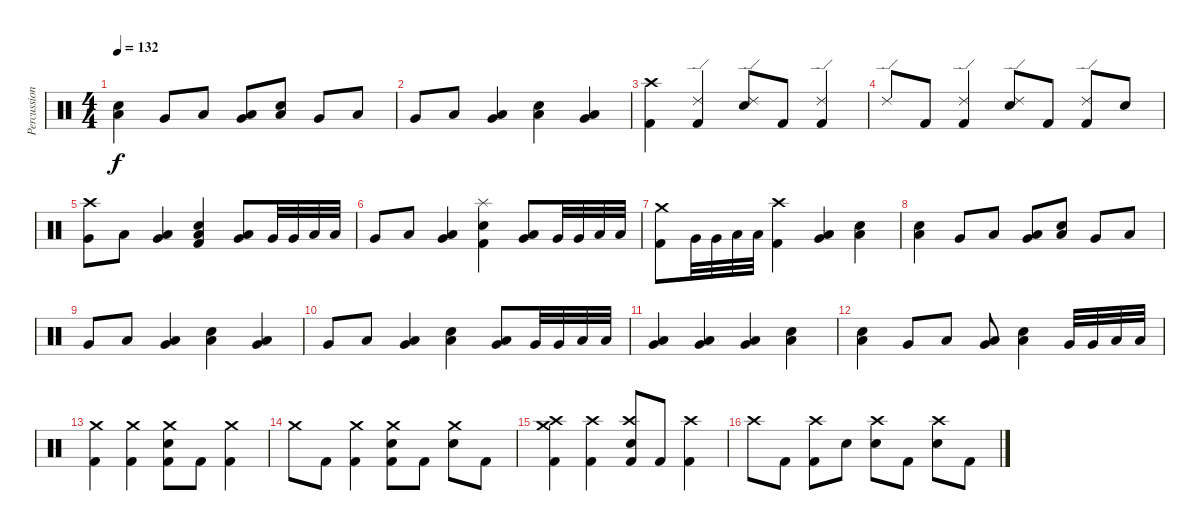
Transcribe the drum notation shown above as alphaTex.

\track ("Percussion" "Percussion") {instrument percussion}
\staff {score}
\articulation defaults
\ts (4 4)
\tempo 132
\clef neutral
\ks c
("Electric Snare (hit)" "Low Floor Tom (hit)").4{dy f} "Very Low Tom (hit)".8 "Low Floor Tom (hit)".8 ("Very Low Tom (hit)" "Low Floor Tom (hit)").8 ("Electric Snare (hit)" "Low Floor Tom (hit)").8 "Very Low Tom (hit)".8 "Low Floor Tom (hit)".8 |
"Very Low Tom (hit)".8 "Low Floor Tom (hit)".8 ("Very Low Tom (hit)" "Low Floor Tom (hit)").4 ("Electric Snare (hit)" "Low Floor Tom (hit)").4 ("Very Low Tom (hit)" "Low Floor Tom (hit)").4 |
("Crash high (hit)" "Kick (hit) 2").4 ("Ride (edge) 2" "Kick (hit) 2").4 ("Ride (edge) 2" "Electric Snare (hit)").8 "Kick (hit) 2".8 ("Ride (edge) 2" "Kick (hit) 2").4 |
"Ride (edge) 2".8 "Kick (hit) 2".8 ("Ride (edge) 2" "Kick (hit) 2").4 ("Ride (edge) 2" "Electric Snare (hit)").8 "Kick (hit) 2".8 ("Ride (edge) 2" "Kick (hit) 2").8 "Electric Snare (hit)".8 |
("Crash high (hit)" "Very Low Tom (hit)").8 "Low Floor Tom (hit)".8 ("Very Low Tom (hit)" "Low Floor Tom (hit)").4 ("Electric Snare (hit)" "Low Floor Tom (hit)" "Kick (hit) 2").4 ("Very Low Tom (hit)" "Low Floor Tom (hit)").8 "Very Low Tom (hit)".32 "Very Low Tom (hit)".32 "Low Floor Tom (hit)".32 "Low Floor Tom (hit)".32 |
"Very Low Tom (hit)".8 "Low Floor Tom (hit)".8 ("Very Low Tom (hit)" "Low Floor Tom (hit)").4 ("Splash (hit)" "Electric Snare (hit)" "Kick (hit) 2").4 ("Very Low Tom (hit)" "Low Floor Tom (hit)").8 "Very Low Tom (hit)".32 "Very Low Tom (hit)".32 "Low Floor Tom (hit)".32 "Low Floor Tom (hit)".32 |
("Crash medium (hit)" "Kick (hit) 2").8 "Very Low Tom (hit)".32 "Very Low Tom (hit)".32 "Low Floor Tom (hit)".32 "Low Floor Tom (hit)".32 ("Crash high (hit)" "Kick (hit) 2").4 ("Very Low Tom (hit)" "Low Floor Tom (hit)").4 ("Electric Snare (hit)" "Low Floor Tom (hit)").4 |
("Electric Snare (hit)" "Low Floor Tom (hit)").4 "Very Low Tom (hit)".8 "Low Floor Tom (hit)".8 ("Very Low Tom (hit)" "Low Floor Tom (hit)").8 ("Electric Snare (hit)" "Low Floor Tom (hit)").8 "Very Low Tom (hit)".8 "Low Floor Tom (hit)".8 |
"Very Low Tom (hit)".8 "Low Floor Tom (hit)".8 ("Very Low Tom (hit)" "Low Floor Tom (hit)").4 ("Electric Snare (hit)" "Low Floor Tom (hit)").4 ("Very Low Tom (hit)" "Low Floor Tom (hit)").4 |
"Very Low Tom (hit)".8 "Low Floor Tom (hit)".8 ("Very Low Tom (hit)" "Low Floor Tom (hit)").4 ("Electric Snare (hit)" "Low Floor Tom (hit)").4 ("Very Low Tom (hit)" "Low Floor Tom (hit)").8 "Very Low Tom (hit)".32 "Very Low Tom (hit)".32 "Low Floor Tom (hit)".32 "Low Floor Tom (hit)".32 |
("Very Low Tom (hit)" "Low Floor Tom (hit)").4 ("Very Low Tom (hit)" "Low Floor Tom (hit)").4 ("Very Low Tom (hit)" "Low Floor Tom (hit)").4 ("Electric Snare (hit)" "Low Floor Tom (hit)").4 |
("Electric Snare (hit)" "Low Floor Tom (hit)").4 "Very Low Tom (hit)".8 "Low Floor Tom (hit)".8 ("Very Low Tom (hit)" "Low Floor Tom (hit)").8 ("Electric Snare (hit)" "Low Floor Tom (hit)").4 "Very Low Tom (hit)".32 "Very Low Tom (hit)".32 "Low Floor Tom (hit)".32 "Low Floor Tom (hit)".32 |
("Crash medium (hit)" "Kick (hit) 2").4 ("Crash medium (hit)" "Kick (hit) 2").4 ("Crash medium (hit)" "Electric Snare (hit)" "Kick (hit) 2").8 "Kick (hit) 2".8 ("Crash medium (hit)" "Kick (hit) 2").4 |
"Crash medium (hit)".8 "Kick (hit) 2".8 ("Crash medium (hit)" "Kick (hit) 2").4 ("Crash medium (hit)" "Electric Snare (hit)" "Kick (hit) 2").8 "Kick (hit) 2".8 ("Crash medium (hit)" "Electric Snare (hit)").8 "Kick (hit) 2".8 |
("Crash medium (hit)" "Crash high (hit)" "Kick (hit) 2").4 ("Crash high (hit)" "Kick (hit) 2").4 ("Crash high (hit)" "Electric Snare (hit)" "Kick (hit) 2").8 "Kick (hit) 2".8 ("Crash high (hit)" "Kick (hit) 2").4 |
"Crash high (hit)".8 "Kick (hit) 2".8 ("Crash high (hit)" "Kick (hit) 2").8 "Electric Snare (hit)".8 ("Crash high (hit)" "Electric Snare (hit)").8 "Kick (hit) 2".8 ("Crash high (hit)" "Electric Snare (hit)").8 "Kick (hit) 2".8
